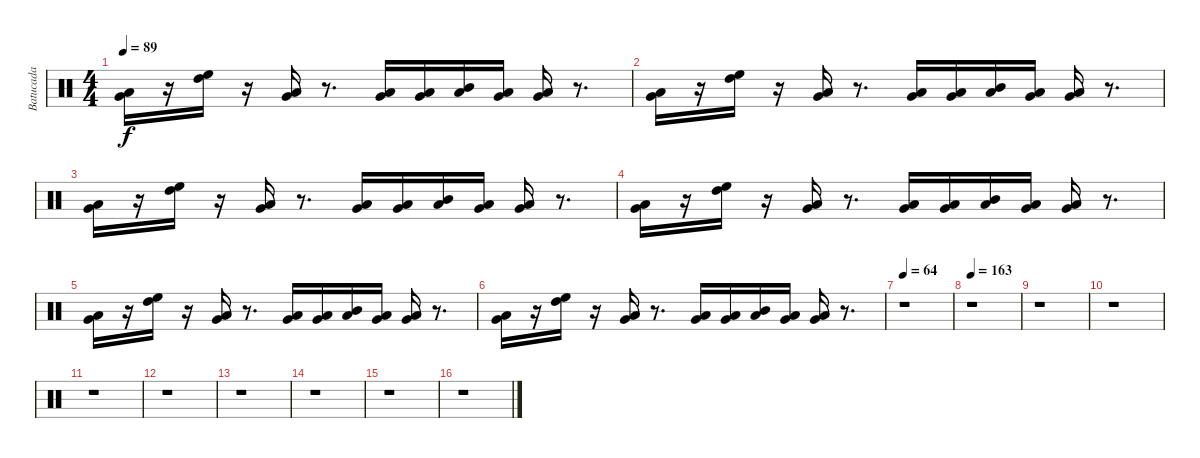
\track ("Batucada" "Batucada") {instrument percussion}
\staff {score}
\articulation defaults
\ts (4 4)
\tempo 89
\clef neutral
\ks c
("Very Low Tom (hit)" "Low Floor Tom (hit)").16{dy f} r.16 ("High Floor Tom (hit)" "High Tom (hit)").16 r.16 ("Very Low Tom (hit)" "Low Floor Tom (hit)").16 r.8{d} ("Very Low Tom (hit)" "Low Floor Tom (hit)").16 ("Very Low Tom (hit)" "Low Floor Tom (hit)").16 ("Mid Tom (hit)" "Low Floor Tom (hit)").16 ("Very Low Tom (hit)" "Low Floor Tom (hit)").16 ("Very Low Tom (hit)" "Low Floor Tom (hit)").16 r.8{d} |
("Very Low Tom (hit)" "Low Floor Tom (hit)").16 r.16 ("High Floor Tom (hit)" "High Tom (hit)").16 r.16 ("Very Low Tom (hit)" "Low Floor Tom (hit)").16 r.8{d} ("Very Low Tom (hit)" "Low Floor Tom (hit)").16 ("Very Low Tom (hit)" "Low Floor Tom (hit)").16 ("Mid Tom (hit)" "Low Floor Tom (hit)").16 ("Very Low Tom (hit)" "Low Floor Tom (hit)").16 ("Very Low Tom (hit)" "Low Floor Tom (hit)").16 r.8{d} |
("Very Low Tom (hit)" "Low Floor Tom (hit)").16 r.16 ("High Floor Tom (hit)" "High Tom (hit)").16 r.16 ("Very Low Tom (hit)" "Low Floor Tom (hit)").16 r.8{d} ("Very Low Tom (hit)" "Low Floor Tom (hit)").16 ("Very Low Tom (hit)" "Low Floor Tom (hit)").16 ("Mid Tom (hit)" "Low Floor Tom (hit)").16 ("Very Low Tom (hit)" "Low Floor Tom (hit)").16 ("Very Low Tom (hit)" "Low Floor Tom (hit)").16 r.8{d} |
("Very Low Tom (hit)" "Low Floor Tom (hit)").16 r.16 ("High Floor Tom (hit)" "High Tom (hit)").16 r.16 ("Very Low Tom (hit)" "Low Floor Tom (hit)").16 r.8{d} ("Very Low Tom (hit)" "Low Floor Tom (hit)").16 ("Very Low Tom (hit)" "Low Floor Tom (hit)").16 ("Mid Tom (hit)" "Low Floor Tom (hit)").16 ("Very Low Tom (hit)" "Low Floor Tom (hit)").16 ("Very Low Tom (hit)" "Low Floor Tom (hit)").16 r.8{d} |
("Very Low Tom (hit)" "Low Floor Tom (hit)").16 r.16 ("High Floor Tom (hit)" "High Tom (hit)").16 r.16 ("Very Low Tom (hit)" "Low Floor Tom (hit)").16 r.8{d} ("Very Low Tom (hit)" "Low Floor Tom (hit)").16 ("Very Low Tom (hit)" "Low Floor Tom (hit)").16 ("Mid Tom (hit)" "Low Floor Tom (hit)").16 ("Very Low Tom (hit)" "Low Floor Tom (hit)").16 ("Very Low Tom (hit)" "Low Floor Tom (hit)").16 r.8{d} |
("Very Low Tom (hit)" "Low Floor Tom (hit)").16 r.16 ("High Floor Tom (hit)" "High Tom (hit)").16 r.16 ("Very Low Tom (hit)" "Low Floor Tom (hit)").16 r.8{d} ("Very Low Tom (hit)" "Low Floor Tom (hit)").16 ("Very Low Tom (hit)" "Low Floor Tom (hit)").16 ("Mid Tom (hit)" "Low Floor Tom (hit)").16 ("Very Low Tom (hit)" "Low Floor Tom (hit)").16 ("Very Low Tom (hit)" "Low Floor Tom (hit)").16 r.8{d} |
\tempo 64
r.1 |
\tempo 163
r.1 |
r.1 |
r.1 |
r.1 |
r.1 |
r.1 |
r.1 |
r.1 |
r.1
